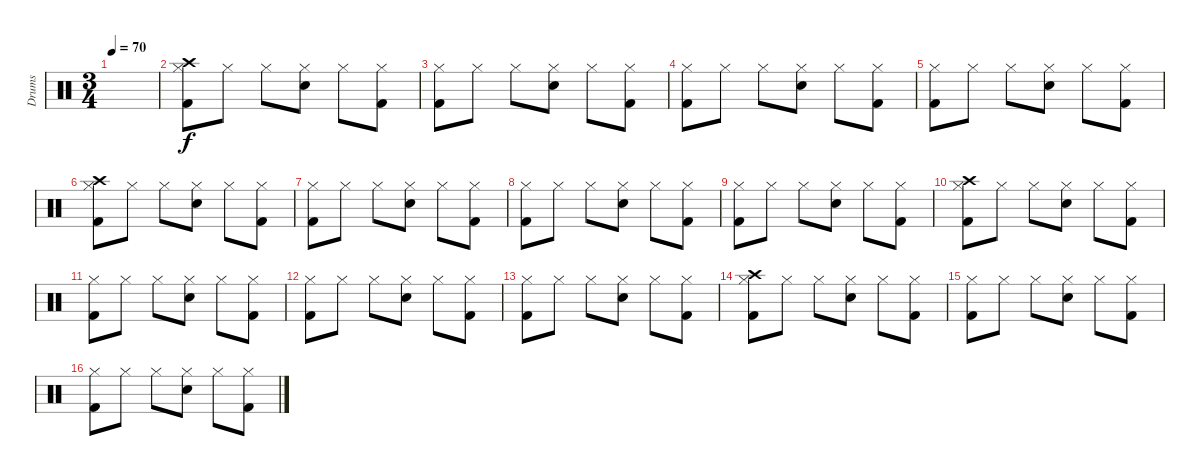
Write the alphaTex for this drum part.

\track ("Drums" "Drums") {instrument percussion}
\staff {score}
\articulation defaults
\ts (3 4)
\tempo 70
\clef neutral
\ks c
|
("Hi-Hat (closed)" "Kick (hit) 2" "Crash high (hit)").8 "Hi-Hat (closed)".8 "Hi-Hat (closed)".8 ("Hi-Hat (closed)" "Snare (hit) 2").8 "Hi-Hat (closed)".8 ("Hi-Hat (closed)" "Kick (hit) 2").8 |
("Hi-Hat (closed)" "Kick (hit) 2").8 "Hi-Hat (closed)".8 "Hi-Hat (closed)".8 ("Hi-Hat (closed)" "Snare (hit) 2").8 "Hi-Hat (closed)".8 ("Hi-Hat (closed)" "Kick (hit) 2").8 |
("Hi-Hat (closed)" "Kick (hit) 2").8 "Hi-Hat (closed)".8 "Hi-Hat (closed)".8 ("Hi-Hat (closed)" "Snare (hit) 2").8 "Hi-Hat (closed)".8 ("Hi-Hat (closed)" "Kick (hit) 2").8 |
("Hi-Hat (closed)" "Kick (hit) 2").8 "Hi-Hat (closed)".8 "Hi-Hat (closed)".8 ("Hi-Hat (closed)" "Snare (hit) 2").8 "Hi-Hat (closed)".8 ("Hi-Hat (closed)" "Kick (hit) 2").8 |
("Hi-Hat (closed)" "Kick (hit) 2" "Crash high (hit)").8 "Hi-Hat (closed)".8 "Hi-Hat (closed)".8 ("Hi-Hat (closed)" "Snare (hit) 2").8 "Hi-Hat (closed)".8 ("Hi-Hat (closed)" "Kick (hit) 2").8 |
("Hi-Hat (closed)" "Kick (hit) 2").8 "Hi-Hat (closed)".8 "Hi-Hat (closed)".8 ("Hi-Hat (closed)" "Snare (hit) 2").8 "Hi-Hat (closed)".8 ("Hi-Hat (closed)" "Kick (hit) 2").8 |
("Hi-Hat (closed)" "Kick (hit) 2").8 "Hi-Hat (closed)".8 "Hi-Hat (closed)".8 ("Hi-Hat (closed)" "Snare (hit) 2").8 "Hi-Hat (closed)".8 ("Hi-Hat (closed)" "Kick (hit) 2").8 |
("Hi-Hat (closed)" "Kick (hit) 2").8 "Hi-Hat (closed)".8 "Hi-Hat (closed)".8 ("Hi-Hat (closed)" "Snare (hit) 2").8 "Hi-Hat (closed)".8 ("Hi-Hat (closed)" "Kick (hit) 2").8 |
("Hi-Hat (closed)" "Kick (hit) 2" "Crash high (hit)").8 "Hi-Hat (closed)".8 "Hi-Hat (closed)".8 ("Hi-Hat (closed)" "Snare (hit) 2").8 "Hi-Hat (closed)".8 ("Hi-Hat (closed)" "Kick (hit) 2").8 |
("Hi-Hat (closed)" "Kick (hit) 2").8 "Hi-Hat (closed)".8 "Hi-Hat (closed)".8 ("Hi-Hat (closed)" "Snare (hit) 2").8 "Hi-Hat (closed)".8 ("Hi-Hat (closed)" "Kick (hit) 2").8 |
("Hi-Hat (closed)" "Kick (hit) 2").8 "Hi-Hat (closed)".8 "Hi-Hat (closed)".8 ("Hi-Hat (closed)" "Snare (hit) 2").8 "Hi-Hat (closed)".8 ("Hi-Hat (closed)" "Kick (hit) 2").8 |
("Hi-Hat (closed)" "Kick (hit) 2").8 "Hi-Hat (closed)".8 "Hi-Hat (closed)".8 ("Hi-Hat (closed)" "Snare (hit) 2").8 "Hi-Hat (closed)".8 ("Hi-Hat (closed)" "Kick (hit) 2").8 |
("Hi-Hat (closed)" "Kick (hit) 2" "Crash high (hit)").8 "Hi-Hat (closed)".8 "Hi-Hat (closed)".8 ("Hi-Hat (closed)" "Snare (hit) 2").8 "Hi-Hat (closed)".8 ("Hi-Hat (closed)" "Kick (hit) 2").8 |
("Hi-Hat (closed)" "Kick (hit) 2").8 "Hi-Hat (closed)".8 "Hi-Hat (closed)".8 ("Hi-Hat (closed)" "Snare (hit) 2").8 "Hi-Hat (closed)".8 ("Hi-Hat (closed)" "Kick (hit) 2").8 |
("Hi-Hat (closed)" "Kick (hit) 2").8 "Hi-Hat (closed)".8 "Hi-Hat (closed)".8 ("Hi-Hat (closed)" "Snare (hit) 2").8 "Hi-Hat (closed)".8 ("Hi-Hat (closed)" "Kick (hit) 2").8
